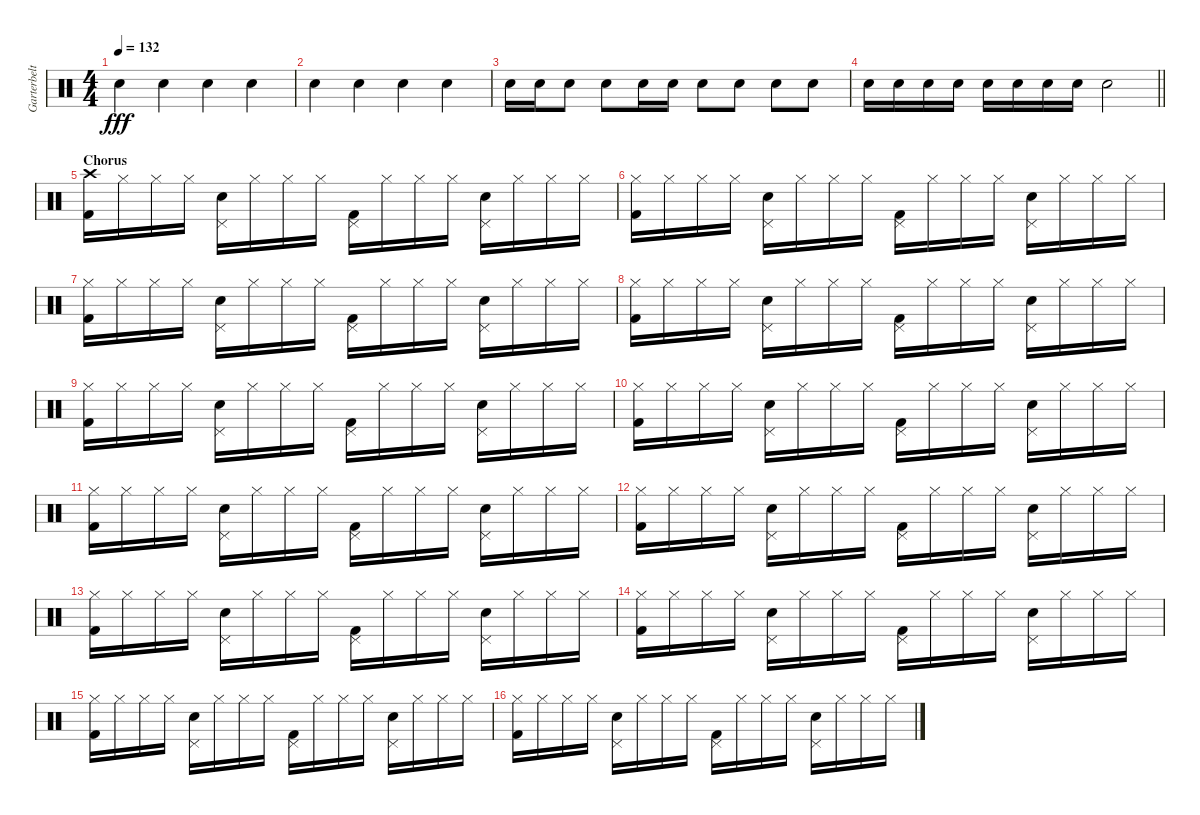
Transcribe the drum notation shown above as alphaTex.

\track ("Garterbelt" "Garterbelt") {instrument percussion}
\staff {score}
\articulation defaults
\ts (4 4)
\tempo 132
\clef neutral
\ks c "Hand Clap (hit)".4{dy fff} "Hand Clap (hit)".4 "Hand Clap (hit)".4 "Hand Clap (hit)".4
|
"Hand Clap (hit)".4 "Hand Clap (hit)".4 "Hand Clap (hit)".4 "Hand Clap (hit)".4 |
"Hand Clap (hit)".16 "Hand Clap (hit)".16 "Hand Clap (hit)".8 "Hand Clap (hit)".8 "Hand Clap (hit)".16 "Hand Clap (hit)".16 "Hand Clap (hit)".8 "Hand Clap (hit)".8 "Hand Clap (hit)".8 "Hand Clap (hit)".8 |
\barLineRight lightlight "Hand Clap (hit)".16 "Hand Clap (hit)".16 "Hand Clap (hit)".16 "Hand Clap (hit)".16 "Hand Clap (hit)".16 "Hand Clap (hit)".16 "Hand Clap (hit)".16 "Hand Clap (hit)".16 "Hand Clap (hit)".2
|
\section ("" "Chorus")
("Crash high (hit)" "Kick (hit) 2").16 "Hi-Hat (closed)".16 "Hi-Hat (closed)".16 "Hi-Hat (closed)".16 ("Pedal Hi-Hat (hit)" "Hand Clap (hit)").16 "Hi-Hat (closed)".16 "Hi-Hat (closed)".16 "Hi-Hat (closed)".16 ("Pedal Hi-Hat (hit)" "Kick (hit) 2").16 "Hi-Hat (closed)".16 "Hi-Hat (closed)".16 "Hi-Hat (closed)".16 ("Pedal Hi-Hat (hit)" "Hand Clap (hit)").16 "Hi-Hat (closed)".16 "Hi-Hat (closed)".16 "Hi-Hat (closed)".16 |
("Hi-Hat (closed)" "Kick (hit) 2").16 "Hi-Hat (closed)".16 "Hi-Hat (closed)".16 "Hi-Hat (closed)".16 ("Pedal Hi-Hat (hit)" "Hand Clap (hit)").16 "Hi-Hat (closed)".16 "Hi-Hat (closed)".16 "Hi-Hat (closed)".16 ("Pedal Hi-Hat (hit)" "Kick (hit) 2").16 "Hi-Hat (closed)".16 "Hi-Hat (closed)".16 "Hi-Hat (closed)".16 ("Pedal Hi-Hat (hit)" "Hand Clap (hit)").16 "Hi-Hat (closed)".16 "Hi-Hat (closed)".16 "Hi-Hat (closed)".16 |
("Hi-Hat (closed)" "Kick (hit) 2").16 "Hi-Hat (closed)".16 "Hi-Hat (closed)".16 "Hi-Hat (closed)".16 ("Pedal Hi-Hat (hit)" "Hand Clap (hit)").16 "Hi-Hat (closed)".16 "Hi-Hat (closed)".16 "Hi-Hat (closed)".16 ("Pedal Hi-Hat (hit)" "Kick (hit) 2").16 "Hi-Hat (closed)".16 "Hi-Hat (closed)".16 "Hi-Hat (closed)".16 ("Pedal Hi-Hat (hit)" "Hand Clap (hit)").16 "Hi-Hat (closed)".16 "Hi-Hat (closed)".16 "Hi-Hat (closed)".16 |
("Hi-Hat (closed)" "Kick (hit) 2").16 "Hi-Hat (closed)".16 "Hi-Hat (closed)".16 "Hi-Hat (closed)".16 ("Pedal Hi-Hat (hit)" "Hand Clap (hit)").16 "Hi-Hat (closed)".16 "Hi-Hat (closed)".16 "Hi-Hat (closed)".16 ("Pedal Hi-Hat (hit)" "Kick (hit) 2").16 "Hi-Hat (closed)".16 "Hi-Hat (closed)".16 "Hi-Hat (closed)".16 ("Pedal Hi-Hat (hit)" "Hand Clap (hit)").16 "Hi-Hat (closed)".16 "Hi-Hat (closed)".16 "Hi-Hat (closed)".16 |
("Hi-Hat (closed)" "Kick (hit) 2").16 "Hi-Hat (closed)".16 "Hi-Hat (closed)".16 "Hi-Hat (closed)".16 ("Pedal Hi-Hat (hit)" "Hand Clap (hit)").16 "Hi-Hat (closed)".16 "Hi-Hat (closed)".16 "Hi-Hat (closed)".16 ("Pedal Hi-Hat (hit)" "Kick (hit) 2").16 "Hi-Hat (closed)".16 "Hi-Hat (closed)".16 "Hi-Hat (closed)".16 ("Pedal Hi-Hat (hit)" "Hand Clap (hit)").16 "Hi-Hat (closed)".16 "Hi-Hat (closed)".16 "Hi-Hat (closed)".16 |
("Hi-Hat (closed)" "Kick (hit) 2").16 "Hi-Hat (closed)".16 "Hi-Hat (closed)".16 "Hi-Hat (closed)".16 ("Pedal Hi-Hat (hit)" "Hand Clap (hit)").16 "Hi-Hat (closed)".16 "Hi-Hat (closed)".16 "Hi-Hat (closed)".16 ("Pedal Hi-Hat (hit)" "Kick (hit) 2").16 "Hi-Hat (closed)".16 "Hi-Hat (closed)".16 "Hi-Hat (closed)".16 ("Pedal Hi-Hat (hit)" "Hand Clap (hit)").16 "Hi-Hat (closed)".16 "Hi-Hat (closed)".16 "Hi-Hat (closed)".16 |
("Hi-Hat (closed)" "Kick (hit) 2").16 "Hi-Hat (closed)".16 "Hi-Hat (closed)".16 "Hi-Hat (closed)".16 ("Pedal Hi-Hat (hit)" "Hand Clap (hit)").16 "Hi-Hat (closed)".16 "Hi-Hat (closed)".16 "Hi-Hat (closed)".16 ("Pedal Hi-Hat (hit)" "Kick (hit) 2").16 "Hi-Hat (closed)".16 "Hi-Hat (closed)".16 "Hi-Hat (closed)".16 ("Pedal Hi-Hat (hit)" "Hand Clap (hit)").16 "Hi-Hat (closed)".16 "Hi-Hat (closed)".16 "Hi-Hat (closed)".16 |
("Hi-Hat (closed)" "Kick (hit) 2").16 "Hi-Hat (closed)".16 "Hi-Hat (closed)".16 "Hi-Hat (closed)".16 ("Pedal Hi-Hat (hit)" "Hand Clap (hit)").16 "Hi-Hat (closed)".16 "Hi-Hat (closed)".16 "Hi-Hat (closed)".16 ("Pedal Hi-Hat (hit)" "Kick (hit) 2").16 "Hi-Hat (closed)".16 "Hi-Hat (closed)".16 "Hi-Hat (closed)".16 ("Pedal Hi-Hat (hit)" "Hand Clap (hit)").16 "Hi-Hat (closed)".16 "Hi-Hat (closed)".16 "Hi-Hat (closed)".16 |
("Hi-Hat (closed)" "Kick (hit) 2").16 "Hi-Hat (closed)".16 "Hi-Hat (closed)".16 "Hi-Hat (closed)".16 ("Pedal Hi-Hat (hit)" "Hand Clap (hit)").16 "Hi-Hat (closed)".16 "Hi-Hat (closed)".16 "Hi-Hat (closed)".16 ("Pedal Hi-Hat (hit)" "Kick (hit) 2").16 "Hi-Hat (closed)".16 "Hi-Hat (closed)".16 "Hi-Hat (closed)".16 ("Pedal Hi-Hat (hit)" "Hand Clap (hit)").16 "Hi-Hat (closed)".16 "Hi-Hat (closed)".16 "Hi-Hat (closed)".16 |
("Hi-Hat (closed)" "Kick (hit) 2").16 "Hi-Hat (closed)".16 "Hi-Hat (closed)".16 "Hi-Hat (closed)".16 ("Pedal Hi-Hat (hit)" "Hand Clap (hit)").16 "Hi-Hat (closed)".16 "Hi-Hat (closed)".16 "Hi-Hat (closed)".16 ("Pedal Hi-Hat (hit)" "Kick (hit) 2").16 "Hi-Hat (closed)".16 "Hi-Hat (closed)".16 "Hi-Hat (closed)".16 ("Pedal Hi-Hat (hit)" "Hand Clap (hit)").16 "Hi-Hat (closed)".16 "Hi-Hat (closed)".16 "Hi-Hat (closed)".16 |
("Hi-Hat (closed)" "Kick (hit) 2").16 "Hi-Hat (closed)".16 "Hi-Hat (closed)".16 "Hi-Hat (closed)".16 ("Pedal Hi-Hat (hit)" "Hand Clap (hit)").16 "Hi-Hat (closed)".16 "Hi-Hat (closed)".16 "Hi-Hat (closed)".16 ("Pedal Hi-Hat (hit)" "Kick (hit) 2").16 "Hi-Hat (closed)".16 "Hi-Hat (closed)".16 "Hi-Hat (closed)".16 ("Pedal Hi-Hat (hit)" "Hand Clap (hit)").16 "Hi-Hat (closed)".16 "Hi-Hat (closed)".16 "Hi-Hat (closed)".16 |
("Hi-Hat (closed)" "Kick (hit) 2").16 "Hi-Hat (closed)".16 "Hi-Hat (closed)".16 "Hi-Hat (closed)".16 ("Pedal Hi-Hat (hit)" "Hand Clap (hit)").16 "Hi-Hat (closed)".16 "Hi-Hat (closed)".16 "Hi-Hat (closed)".16 ("Pedal Hi-Hat (hit)" "Kick (hit) 2").16 "Hi-Hat (closed)".16 "Hi-Hat (closed)".16 "Hi-Hat (closed)".16 ("Pedal Hi-Hat (hit)" "Hand Clap (hit)").16 "Hi-Hat (closed)".16 "Hi-Hat (closed)".16 "Hi-Hat (closed)".16
